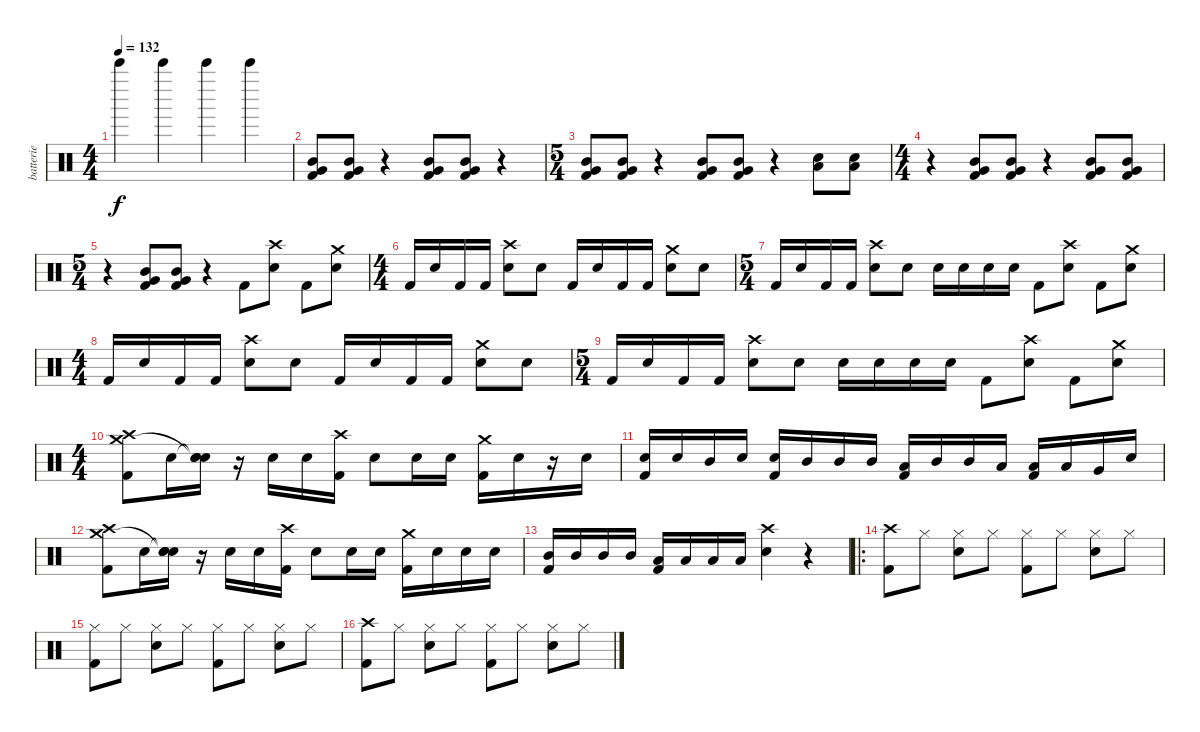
\track ("batterie" "batterie") {instrument percussion}
\staff {score}
\articulation defaults
\ts (4 4)
\tempo 132
\clef neutral
\ks c "Bell Tree (hit)".4{dy f} "Bell Tree (hit)".4 "Bell Tree (hit)".4 "Bell Tree (hit)".4
|
("Very Low Tom (hit)" "Mid Tom (hit)" "Kick (hit) 2").8 ("Very Low Tom (hit)" "Mid Tom (hit)" "Kick (hit) 2").8 r.4 ("Very Low Tom (hit)" "Mid Tom (hit)" "Kick (hit) 2").8 ("Very Low Tom (hit)" "Mid Tom (hit)" "Kick (hit) 2").8 r.4 |
\ts (5 4)
("Very Low Tom (hit)" "Mid Tom (hit)" "Kick (hit) 2").8 ("Very Low Tom (hit)" "Mid Tom (hit)" "Kick (hit) 2").8 r.4 ("Very Low Tom (hit)" "Mid Tom (hit)" "Kick (hit) 2").8 ("Very Low Tom (hit)" "Mid Tom (hit)" "Kick (hit) 2").8 r.4 ("Low Tom (hit)" "Electric Snare (hit)").8 ("Low Tom (hit)" "Electric Snare (hit)").8 |
\ts (4 4)
r.4 ("Very Low Tom (hit)" "Mid Tom (hit)" "Kick (hit) 2").8 ("Very Low Tom (hit)" "Mid Tom (hit)" "Kick (hit) 2").8 r.4 ("Very Low Tom (hit)" "Mid Tom (hit)" "Kick (hit) 2").8 ("Very Low Tom (hit)" "Mid Tom (hit)" "Kick (hit) 2").8 |
\ts (5 4)
r.4 ("Mid Tom (hit)" "Very Low Tom (hit)" "Kick (hit) 2").8 ("Mid Tom (hit)" "Very Low Tom (hit)" "Kick (hit) 2").8 r.4 "Kick (hit) 2".8 ("Crash high (hit)" "Electric Snare (hit)").8 "Kick (hit) 2".8 ("Crash medium (hit)" "Electric Snare (hit)").8 |
\ts (4 4)
"Kick (hit) 2".16 "Electric Snare (hit)".16 "Kick (hit) 2".16 "Kick (hit) 2".16 ("Crash high (hit)" "Electric Snare (hit)").8 "Electric Snare (hit)".8 "Kick (hit) 2".16 "Electric Snare (hit)".16 "Kick (hit) 2".16 "Kick (hit) 2".16 ("Crash medium (hit)" "Electric Snare (hit)").8 "Electric Snare (hit)".8 |
\ts (5 4)
"Kick (hit) 2".16 "Electric Snare (hit)".16 "Kick (hit) 2".16 "Kick (hit) 2".16 ("Crash high (hit)" "Electric Snare (hit)").8 "Electric Snare (hit)".8 "Electric Snare (hit)".16 "Electric Snare (hit)".16 "Electric Snare (hit)".16 "Electric Snare (hit)".16 "Kick (hit) 2".8 ("Crash high (hit)" "Electric Snare (hit)").8 "Kick (hit) 2".8 ("Crash medium (hit)" "Electric Snare (hit)").8 |
\ts (4 4)
"Kick (hit) 2".16 "Electric Snare (hit)".16 "Kick (hit) 2".16 "Kick (hit) 2".16 ("Crash high (hit)" "Electric Snare (hit)").8 "Electric Snare (hit)".8 "Kick (hit) 2".16 "Electric Snare (hit)".16 "Kick (hit) 2".16 "Kick (hit) 2".16 ("Crash medium (hit)" "Electric Snare (hit)").8 "Electric Snare (hit)".8 |
\ts (5 4)
"Kick (hit) 2".16 "Electric Snare (hit)".16 "Kick (hit) 2".16 "Kick (hit) 2".16 ("Crash high (hit)" "Electric Snare (hit)").8 "Electric Snare (hit)".8 "Electric Snare (hit)".16 "Electric Snare (hit)".16 "Electric Snare (hit)".16 "Electric Snare (hit)".16 "Kick (hit) 2".8 ("Crash high (hit)" "Electric Snare (hit)").8 "Kick (hit) 2".8 ("Crash medium (hit)" "Electric Snare (hit)").8 |
\ts (4 4)
("Crash high (hit)" "Crash medium (hit)" "Kick (hit) 2").8 "Electric Snare (hit)".16 ("Snare (hit)"{t} "Snare (hit)"{t} "Electric Snare (hit)").16 r.16 "Electric Snare (hit)".16 "Electric Snare (hit)".16 ("Crash high (hit)" "Kick (hit) 2").16 "Electric Snare (hit)".8 "Electric Snare (hit)".16 "Electric Snare (hit)".16 ("Crash medium (hit)" "Kick (hit) 2").16 "Electric Snare (hit)".16 r.16 "Electric Snare (hit)".16 |
("Electric Snare (hit)" "Kick (hit) 2").16 "Electric Snare (hit)".16 "Mid Tom (hit)".16 "Electric Snare (hit)".16 ("Electric Snare (hit)" "Kick (hit) 2").16 "Mid Tom (hit)".16 "Mid Tom (hit)".16 "Mid Tom (hit)".16 ("Low Tom (hit)" "Kick (hit) 2").16 "Mid Tom (hit)".16 "Mid Tom (hit)".16 "Low Tom (hit)".16 ("Low Tom (hit)" "Kick (hit) 2").16 "Low Tom (hit)".16 "Very Low Tom (hit)".16 "Electric Snare (hit)".16 |
("Crash high (hit)" "Crash medium (hit)" "Kick (hit) 2").8 "Electric Snare (hit)".16 ("Snare (hit)"{t} "Snare (hit)"{t} "Electric Snare (hit)").16 r.16 "Electric Snare (hit)".16 "Electric Snare (hit)".16 ("Crash high (hit)" "Kick (hit) 2").16 "Electric Snare (hit)".8 "Electric Snare (hit)".16 "Electric Snare (hit)".16 ("Crash medium (hit)" "Kick (hit) 2").16 "Electric Snare (hit)".16 "Electric Snare (hit)".16 "Electric Snare (hit)".16 |
("Mid Tom (hit)" "Kick (hit) 2").16 "Mid Tom (hit)".16 "Mid Tom (hit)".16 "Mid Tom (hit)".16 ("Low Tom (hit)" "Kick (hit) 2").16 "Low Tom (hit)".16 "Low Tom (hit)".16 "Low Tom (hit)".16 ("Crash high (hit)" "Electric Snare (hit)").4 r.4 |
\ro
("Crash high (hit)" "Kick (hit) 2").8 "Hi-Hat (closed)".8 ("Electric Snare (hit)" "Hi-Hat (closed)").8 "Hi-Hat (closed)".8 ("Kick (hit) 2" "Hi-Hat (closed)").8 "Hi-Hat (closed)".8 ("Electric Snare (hit)" "Hi-Hat (closed)").8 "Hi-Hat (closed)".8 |
("Kick (hit) 2" "Hi-Hat (closed)").8 "Hi-Hat (closed)".8 ("Electric Snare (hit)" "Hi-Hat (closed)").8 "Hi-Hat (closed)".8 ("Kick (hit) 2" "Hi-Hat (closed)").8 "Hi-Hat (closed)".8 ("Electric Snare (hit)" "Hi-Hat (closed)").8 "Hi-Hat (closed)".8 |
("Crash high (hit)" "Kick (hit) 2").8 "Hi-Hat (closed)".8 ("Electric Snare (hit)" "Hi-Hat (closed)").8 "Hi-Hat (closed)".8 ("Kick (hit) 2" "Hi-Hat (closed)").8 "Hi-Hat (closed)".8 ("Electric Snare (hit)" "Hi-Hat (closed)").8 "Hi-Hat (closed)".8
